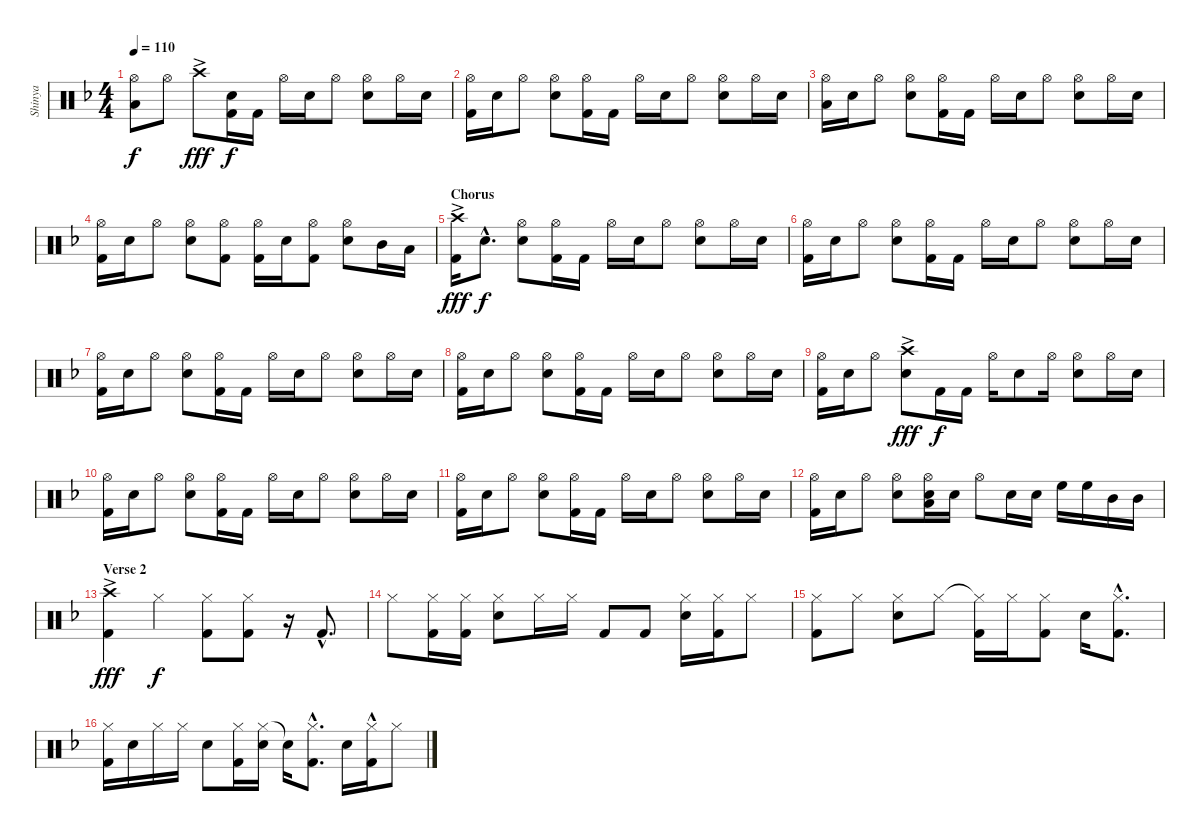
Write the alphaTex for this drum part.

\track ("Shinya" "Shinya") {instrument percussion}
\staff {score}
\articulation defaults
\ts (4 4)
\tempo 110
\clef neutral
\ks f
("Hi-Hat (open)" "Low Floor Tom (hit)").8{dy f} "Hi-Hat (open)".8 "Crash high (hit)"{ac}.8{dy fff} ("Snare (hit) 2" "Kick (hit) 2").16{dy f} "Kick (hit) 2".16 "Hi-Hat (open)".16 "Snare (hit) 2".16 "Hi-Hat (open)".8 ("Hi-Hat (open)" "Snare (hit) 2").8 "Hi-Hat (open)".16 "Snare (hit) 2".16 |
("Hi-Hat (open)" "Kick (hit) 2").16 "Snare (hit) 2".16 "Hi-Hat (open)".8 ("Hi-Hat (open)" "Snare (hit) 2").8 ("Hi-Hat (open)" "Kick (hit) 2").16 "Kick (hit) 2".16 "Hi-Hat (open)".16 "Snare (hit) 2".16 "Hi-Hat (open)".8 ("Hi-Hat (open)" "Snare (hit) 2").8 "Hi-Hat (open)".16 "Snare (hit) 2".16 |
("Hi-Hat (open)" "Low Floor Tom (hit)").16 "Snare (hit) 2".16 "Hi-Hat (open)".8 ("Hi-Hat (open)" "Snare (hit) 2").8 ("Hi-Hat (open)" "Kick (hit) 2").16 "Kick (hit) 2".16 "Hi-Hat (open)".16 "Snare (hit) 2".16 "Hi-Hat (open)".8 ("Hi-Hat (open)" "Snare (hit) 2").8 "Hi-Hat (open)".16 "Snare (hit) 2".16 |
("Hi-Hat (open)" "Kick (hit) 2").16 "Snare (hit) 2".16 "Hi-Hat (open)".8 ("Hi-Hat (open)" "Snare (hit) 2").8 ("Hi-Hat (open)" "Kick (hit) 2").8 ("Hi-Hat (open)" "Kick (hit) 2").16 "Snare (hit) 2".16 ("Hi-Hat (open)" "Kick (hit) 2").8 ("Hi-Hat (open)" "Snare (hit) 2").8 "Mid Tom (hit)".16 "Low Tom (hit)".16 |
\section ("" "Chorus")
("Crash high (hit)"{ac} "Kick (hit) 2").16{dy fff} "Snare (hit) 2"{hac}.8{d dy f} ("Hi-Hat (open)" "Snare (hit) 2").8 ("Hi-Hat (open)" "Kick (hit) 2").16 "Kick (hit) 2".16 "Hi-Hat (open)".16 "Snare (hit) 2".16 "Hi-Hat (open)".8 ("Hi-Hat (open)" "Snare (hit) 2").8 "Hi-Hat (open)".16 "Snare (hit) 2".16 |
("Hi-Hat (open)" "Kick (hit) 2").16 "Snare (hit) 2".16 "Hi-Hat (open)".8 ("Hi-Hat (open)" "Snare (hit) 2").8 ("Hi-Hat (open)" "Kick (hit) 2").16 "Kick (hit) 2".16 "Hi-Hat (open)".16 "Snare (hit) 2".16 "Hi-Hat (open)".8 ("Hi-Hat (open)" "Snare (hit) 2").8 "Hi-Hat (open)".16 "Snare (hit) 2".16 |
("Hi-Hat (open)" "Kick (hit) 2").16 "Snare (hit) 2".16 "Hi-Hat (open)".8 ("Hi-Hat (open)" "Snare (hit) 2").8 ("Hi-Hat (open)" "Kick (hit) 2").16 "Kick (hit) 2".16 "Hi-Hat (open)".16 "Snare (hit) 2".16 "Hi-Hat (open)".8 ("Hi-Hat (open)" "Snare (hit) 2").8 "Hi-Hat (open)".16 "Snare (hit) 2".16 |
("Hi-Hat (open)" "Kick (hit) 2").16 "Snare (hit) 2".16 "Hi-Hat (open)".8 ("Hi-Hat (open)" "Snare (hit) 2").8 ("Hi-Hat (open)" "Kick (hit) 2").16 "Kick (hit) 2".16 "Hi-Hat (open)".16 "Snare (hit) 2".16 "Hi-Hat (open)".8 ("Hi-Hat (open)" "Snare (hit) 2").8 "Hi-Hat (open)".16 "Snare (hit) 2".16 |
("Hi-Hat (open)" "Kick (hit) 2").16 "Snare (hit) 2".16 "Hi-Hat (open)".8 ("Crash high (hit)"{ac} "Snare (hit) 2").8{dy fff} "Kick (hit) 2".16{dy f} "Kick (hit) 2".16 "Hi-Hat (open)".16 "Snare (hit) 2".8 "Hi-Hat (open)".16 ("Hi-Hat (open)" "Snare (hit) 2").8 "Hi-Hat (open)".16 "Snare (hit) 2".16 |
("Hi-Hat (open)" "Kick (hit) 2").16 "Snare (hit) 2".16 "Hi-Hat (open)".8 ("Hi-Hat (open)" "Snare (hit) 2").8 ("Hi-Hat (open)" "Kick (hit) 2").16 "Kick (hit) 2".16 "Hi-Hat (open)".16 "Snare (hit) 2".16 "Hi-Hat (open)".8 ("Hi-Hat (open)" "Snare (hit) 2").8 "Hi-Hat (open)".16 "Snare (hit) 2".16 |
("Hi-Hat (open)" "Kick (hit) 2").16 "Snare (hit) 2".16 "Hi-Hat (open)".8 ("Hi-Hat (open)" "Snare (hit) 2").8 ("Hi-Hat (open)" "Kick (hit) 2").16 "Kick (hit) 2".16 "Hi-Hat (open)".16 "Snare (hit) 2".16 "Hi-Hat (open)".8 ("Hi-Hat (open)" "Snare (hit) 2").8 "Hi-Hat (open)".16 "Snare (hit) 2".16 |
("Hi-Hat (open)" "Kick (hit) 2").16 "Snare (hit) 2".16 "Hi-Hat (open)".8 ("Hi-Hat (open)" "Snare (hit) 2").8 ("Hi-Hat (open)" "Snare (hit) 2" "Low Floor Tom (hit)").16 "Snare (hit) 2".16 "Hi-Hat (open)".8 "Snare (hit) 2".16 "Snare (hit) 2".16 "High Floor Tom (hit)".16 "High Floor Tom (hit)".16 "Mid Tom (hit)".16 "Mid Tom (hit)".16 |
\section ("" "Verse 2")
("Crash high (hit)"{ac} "Kick (hit) 2").4{dy fff} "Hi-Hat (closed)".4{dy f} ("Hi-Hat (closed)" "Kick (hit) 2").8 ("Hi-Hat (closed)" "Kick (hit) 2").8 r.16 "Kick (hit) 2"{hac}.8{d} |
"Hi-Hat (closed)".8 ("Hi-Hat (closed)" "Kick (hit) 2").16 ("Hi-Hat (closed)" "Kick (hit) 2").16 ("Hi-Hat (closed)" "Snare (hit) 2").8 "Hi-Hat (closed)".16 "Hi-Hat (closed)".16 "Kick (hit) 2".8 "Kick (hit) 2".8 ("Hi-Hat (closed)" "Snare (hit) 2").16 ("Hi-Hat (closed)" "Kick (hit) 2").16 "Hi-Hat (closed)".8 |
("Hi-Hat (closed)" "Kick (hit) 2").8 "Hi-Hat (closed)".8 ("Hi-Hat (closed)" "Snare (hit) 2").8 "Hi-Hat (closed)".8 ("Hi-Hat (closed)"{t} "Kick (hit) 2").16 "Hi-Hat (closed)".16 ("Hi-Hat (closed)" "Kick (hit) 2").8 "Snare (hit) 2".16 ("Hi-Hat (closed)"{hac} "Kick (hit) 2"{hac}).8{d} |
("Hi-Hat (closed)" "Kick (hit) 2").16 "Snare (hit) 2".16 "Hi-Hat (closed)".16 "Hi-Hat (closed)".16 "Snare (hit) 2".8 ("Hi-Hat (closed)" "Kick (hit) 2").16 ("Hi-Hat (closed)" "Snare (hit) 2").16 "Snare (hit)"{t}.16 ("Hi-Hat (closed)"{hac} "Kick (hit) 2"{hac}).8{d} "Snare (hit) 2".16 ("Hi-Hat (closed)"{hac} "Kick (hit) 2"{hac}).16 "Hi-Hat (closed)".8
